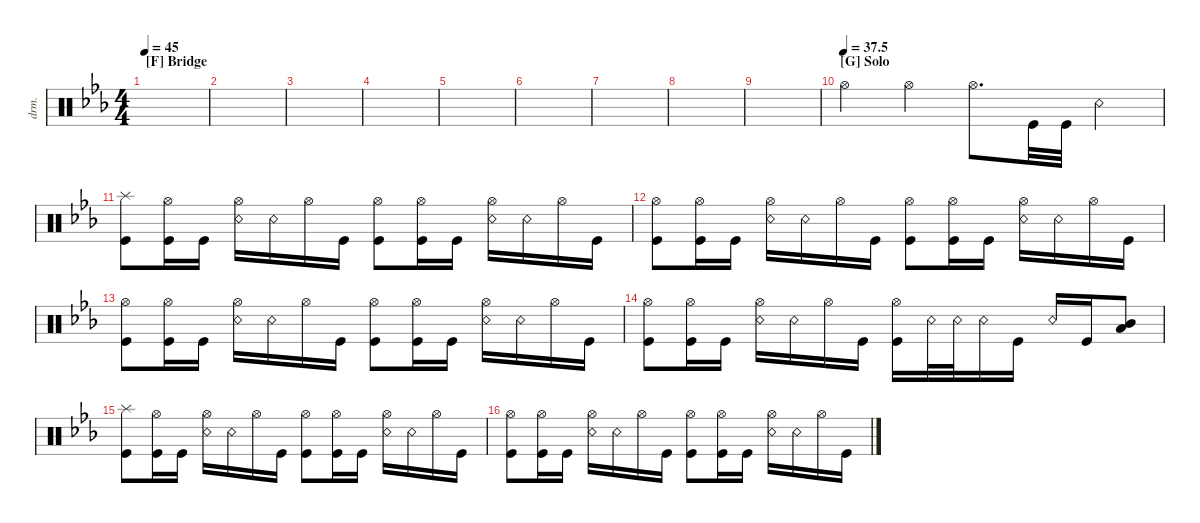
\defaultSystemsLayout 4
\hideDynamics
\bracketExtendMode nobrackets
\otherSystemsTrackNameOrientation horizontal
\track ("Drumkit" "drm.") {instrument percussion}
\staff {score}
\articulation defaults
\ts (4 4)
\section ("F" "Bridge")
\tempo 45
\clef neutral
\ks cminor
|
|
|
|
|
|
|
|
|
\section ("G" "Solo")
\tempo (37.5)
"Hi-Hat (open)".4 "Hi-Hat (open)".4 "Hi-Hat (open)".8{d} "Kick (hit)".32 "Kick (hit)".32 "Snare (rim shot)".4 |
("Splash (hit)" "Kick (hit)").8 ("Kick (hit)" "Hi-Hat (open)").16 "Kick (hit)".16 ("Snare (rim shot)" "Hi-Hat (open)").16 "Snare (rim shot)".16 "Hi-Hat (open)".16 "Kick (hit)".16 ("Kick (hit)" "Hi-Hat (open)").8 ("Kick (hit)" "Hi-Hat (open)").16 "Kick (hit)".16 ("Snare (rim shot)" "Hi-Hat (open)").16 "Snare (rim shot)".16 "Hi-Hat (open)".16 "Kick (hit)".16 |
("Kick (hit)" "Hi-Hat (open)").8 ("Kick (hit)" "Hi-Hat (open)").16 "Kick (hit)".16 ("Snare (rim shot)" "Hi-Hat (open)").16 "Snare (rim shot)".16 "Hi-Hat (open)".16 "Kick (hit)".16 ("Kick (hit)" "Hi-Hat (open)").8 ("Kick (hit)" "Hi-Hat (open)").16 "Kick (hit)".16 ("Snare (rim shot)" "Hi-Hat (open)").16 "Snare (rim shot)".16 "Hi-Hat (open)".16 "Kick (hit)".16 |
("Kick (hit)" "Hi-Hat (open)").8 ("Kick (hit)" "Hi-Hat (open)").16 "Kick (hit)".16 ("Snare (rim shot)" "Hi-Hat (open)").16 "Snare (rim shot)".16 "Hi-Hat (open)".16 "Kick (hit)".16 ("Kick (hit)" "Hi-Hat (open)").8 ("Kick (hit)" "Hi-Hat (open)").16 "Kick (hit)".16 ("Snare (rim shot)" "Hi-Hat (open)").16 "Snare (rim shot)".16 "Hi-Hat (open)".16 "Kick (hit)".16 |
("Kick (hit)" "Hi-Hat (open)").8 ("Kick (hit)" "Hi-Hat (open)").16 "Kick (hit)".16 ("Snare (rim shot)" "Hi-Hat (open)").16 "Snare (rim shot)".16 "Hi-Hat (open)".16 "Kick (hit)".16 ("Kick (hit)" "Hi-Hat (open)").16 "Snare (rim shot)".32 "Snare (rim shot)".32 "Snare (rim shot)".16 "Kick (hit)".16 "Snare (rim shot)".16 "Kick (hit)".16 ("Mid Tom (hit)" "Low Tom (hit)").8 |
("Splash (hit)" "Kick (hit)").8 ("Kick (hit)" "Hi-Hat (open)").16 "Kick (hit)".16 ("Snare (rim shot)" "Hi-Hat (open)").16 "Snare (rim shot)".16 "Hi-Hat (open)".16 "Kick (hit)".16 ("Kick (hit)" "Hi-Hat (open)").8 ("Kick (hit)" "Hi-Hat (open)").16 "Kick (hit)".16 ("Snare (rim shot)" "Hi-Hat (open)").16 "Snare (rim shot)".16 "Hi-Hat (open)".16 "Kick (hit)".16 |
("Kick (hit)" "Hi-Hat (open)").8 ("Kick (hit)" "Hi-Hat (open)").16 "Kick (hit)".16 ("Snare (rim shot)" "Hi-Hat (open)").16 "Snare (rim shot)".16 "Hi-Hat (open)".16 "Kick (hit)".16 ("Kick (hit)" "Hi-Hat (open)").8 ("Kick (hit)" "Hi-Hat (open)").16 "Kick (hit)".16 ("Snare (rim shot)" "Hi-Hat (open)").16 "Snare (rim shot)".16 "Hi-Hat (open)".16 "Kick (hit)".16
